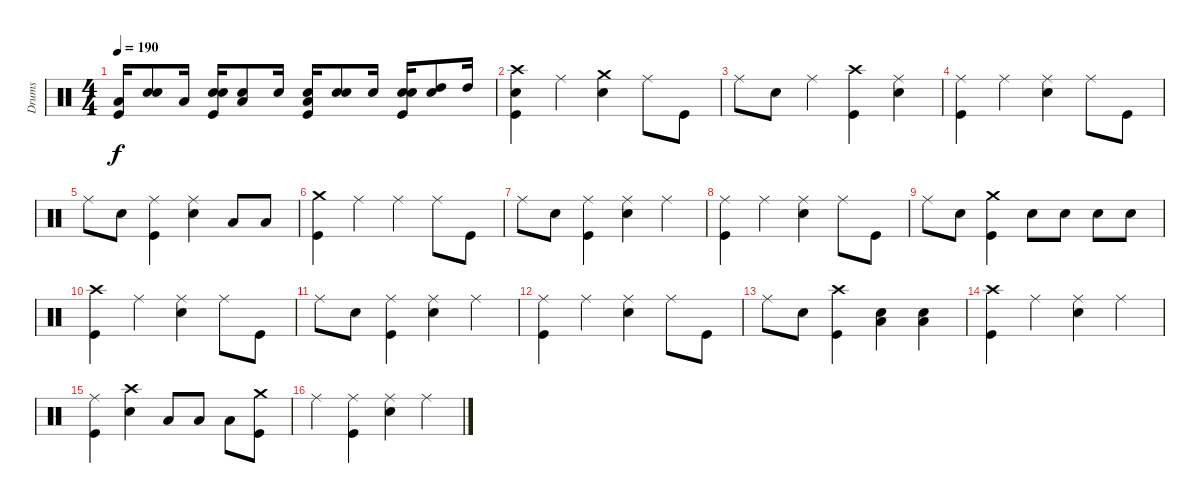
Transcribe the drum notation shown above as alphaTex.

\track ("Drums" "Drums") {instrument percussion}
\staff {score}
\articulation defaults
\ts (4 4)
\tempo 190
\clef neutral
\ks c
("Kick (hit)" "Low Floor Tom (hit)").16{dy f} ("Snare (hit)" "Electric Snare (hit)").8 "Low Floor Tom (hit)".16 ("Snare (hit)" "Kick (hit)" "Electric Snare (hit)").16 ("Snare (hit)" "Low Floor Tom (hit)").8 "Electric Snare (hit)".16 ("Snare (hit)" "Kick (hit)" "Low Tom (hit)").16 ("Snare (hit)" "Electric Snare (hit)").8 "Electric Snare (hit)".16 ("Snare (hit)" "Kick (hit)" "Electric Snare (hit)").16 ("Snare (hit)" "High Tom (hit)").8 "High Tom (hit)".16 |
("Snare (hit)" "Kick (hit)" "Crash high (hit)").4 "Ride (middle)".4 ("Electric Snare (hit)" "Crash medium (hit)").4 "Ride (middle)".8 "Kick (hit)".8 |
"Ride (middle)".8 "Electric Snare (hit)".8 "Ride (middle)".4 ("Kick (hit)" "Crash high (hit)").4 ("Electric Snare (hit)" "Ride (middle)").4 |
("Kick (hit)" "Ride (middle)").4 "Ride (middle)".4 ("Electric Snare (hit)" "Ride (middle)").4 "Ride (middle)".8 "Kick (hit)".8 |
"Ride (middle)".8 "Electric Snare (hit)".8 ("Kick (hit)" "Ride (middle)").4 ("Electric Snare (hit)" "Ride (middle)").4 "Low Floor Tom (hit)".8 "Low Tom (hit)".8 |
("Kick (hit)" "Crash medium (hit)").4 "Ride (middle)".4 "Ride (middle)".4 "Ride (middle)".8 "Kick (hit)".8 |
"Ride (middle)".8 "Electric Snare (hit)".8 ("Kick (hit)" "Ride (middle)").4 ("Electric Snare (hit)" "Ride (middle)").4 "Ride (middle)".4 |
("Kick (hit)" "Ride (middle)").4 "Ride (middle)".4 ("Electric Snare (hit)" "Ride (middle)").4 "Ride (middle)".8 "Kick (hit)".8 |
"Ride (middle)".8 "Electric Snare (hit)".8 ("Crash medium (hit)" "Kick (hit)").4 "Electric Snare (hit)".8 "Electric Snare (hit)".8 "Electric Snare (hit)".8 "Electric Snare (hit)".8 |
("Kick (hit)" "Crash high (hit)").4 "Ride (middle)".4 ("Electric Snare (hit)" "Ride (middle)").4 "Ride (middle)".8 "Kick (hit)".8 |
"Ride (middle)".8 "Electric Snare (hit)".8 ("Kick (hit)" "Ride (middle)").4 ("Electric Snare (hit)" "Ride (middle)").4 "Ride (middle)".4 |
("Kick (hit)" "Ride (middle)").4 "Ride (middle)".4 ("Electric Snare (hit)" "Ride (middle)").4 "Ride (middle)".8 "Kick (hit)".8 |
"Ride (middle)".8 "Electric Snare (hit)".8 ("Crash high (hit)" "Kick (hit)").4 ("Electric Snare (hit)" "Low Tom (hit)").4 ("Electric Snare (hit)" "Low Floor Tom (hit)").4 |
("Kick (hit)" "Crash high (hit)").4 "Ride (middle)".4 ("Electric Snare (hit)" "Ride (middle)").4 "Ride (middle)".4 |
("Kick (hit)" "Ride (middle)").4 ("Electric Snare (hit)" "Crash high (hit)").4 "Low Tom (hit)".8 "Low Tom (hit)".8 "Low Tom (hit)".8 ("Kick (hit)" "Crash medium (hit)").8 |
"Ride (middle)".4 ("Kick (hit)" "Ride (middle)").4 ("Electric Snare (hit)" "Ride (middle)").4 "Ride (middle)".4
